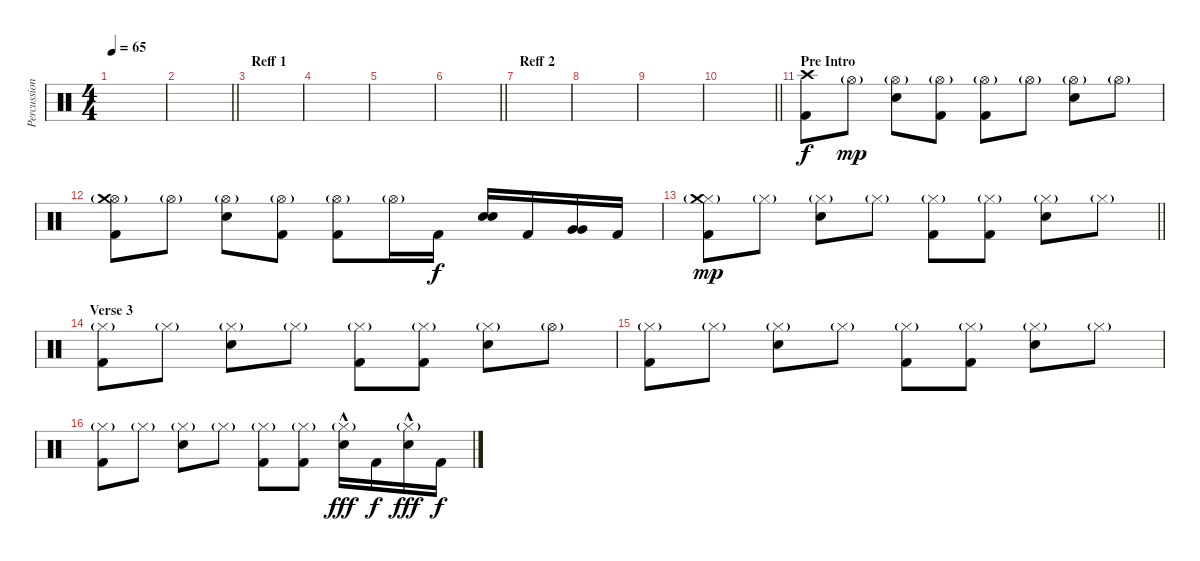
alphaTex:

\track ("Percussion" "Percussion") {instrument percussion}
\staff {score}
\articulation defaults
\ts (4 4)
\tempo 65
\clef neutral
\ks c
|
\barLineRight lightlight
|
\section ("" "Reff 1")
|
|
|
\barLineRight lightlight
|
\section ("" "Reff 2")
|
|
|
\barLineRight lightlight
|
\section ("" "Pre Intro")
("Crash high (hit)" "Kick (hit) 2").8 "Hi-Hat (open)"{g}.8{dy mp} ("Hi-Hat (open)"{g} "Electric Snare (hit)").8 ("Hi-Hat (open)"{g} "Kick (hit) 2").8 ("Hi-Hat (open)"{g} "Kick (hit) 2").8 "Hi-Hat (open)"{g}.8 ("Hi-Hat (open)"{g} "Electric Snare (hit)").8 "Hi-Hat (open)"{g}.8 |
("Hi-Hat (open)"{g} "Crash medium (hit)" "Kick (hit) 2").8 "Hi-Hat (open)"{g}.8 ("Hi-Hat (open)"{g} "Electric Snare (hit)").8 ("Hi-Hat (open)"{g} "Kick (hit) 2").8 ("Hi-Hat (open)"{g} "Kick (hit) 2").8 "Hi-Hat (open)"{g}.16 "Kick (hit) 2".16{dy f} ("Electric Snare (hit)" "Electric Snare (hit)").16{bd 120} "Kick (hit) 2".16 ("Very Low Tom (hit)" "Very Low Tom (hit)").16{bd 120} "Kick (hit) 2".16 |
\barLineRight lightlight
("Hi-Hat (closed)"{g} "Crash medium (hit)" "Kick (hit) 2").8{dy mp} "Hi-Hat (closed)"{g}.8 ("Hi-Hat (closed)"{g} "Electric Snare (hit)").8 "Hi-Hat (closed)"{g}.8 ("Hi-Hat (closed)"{g} "Kick (hit) 2").8 ("Hi-Hat (closed)"{g} "Kick (hit) 2").8 ("Hi-Hat (closed)"{g} "Electric Snare (hit)").8 "Hi-Hat (closed)"{g}.8 |
\section ("" "Verse 3")
("Hi-Hat (closed)"{g} "Kick (hit) 2").8 "Hi-Hat (closed)"{g}.8 ("Hi-Hat (closed)"{g} "Electric Snare (hit)").8 "Hi-Hat (closed)"{g}.8 ("Hi-Hat (closed)"{g} "Kick (hit) 2").8 ("Hi-Hat (closed)"{g} "Kick (hit) 2").8 ("Hi-Hat (closed)"{g} "Electric Snare (hit)").8 "Hi-Hat (open)"{g}.8 |
("Hi-Hat (closed)"{g} "Kick (hit) 2").8 "Hi-Hat (closed)"{g}.8 ("Hi-Hat (closed)"{g} "Electric Snare (hit)").8 "Hi-Hat (closed)"{g}.8 ("Hi-Hat (closed)"{g} "Kick (hit) 2").8 ("Hi-Hat (closed)"{g} "Kick (hit) 2").8 ("Hi-Hat (closed)"{g} "Electric Snare (hit)").8 "Hi-Hat (closed)"{g}.8 |
("Hi-Hat (closed)"{g} "Kick (hit) 2").8 "Hi-Hat (closed)"{g}.8 ("Hi-Hat (closed)"{g} "Electric Snare (hit)").8 "Hi-Hat (closed)"{g}.8 ("Hi-Hat (closed)"{g} "Kick (hit) 2").8 ("Hi-Hat (closed)"{g} "Kick (hit) 2").8 ("Hi-Hat (closed)"{g} "Electric Snare (hit)"{hac}).16{dy fff} "Kick (hit) 2".16{dy f} ("Hi-Hat (closed)"{g} "Electric Snare (hit)"{hac}).16{dy fff} "Kick (hit) 2".16{dy f}
